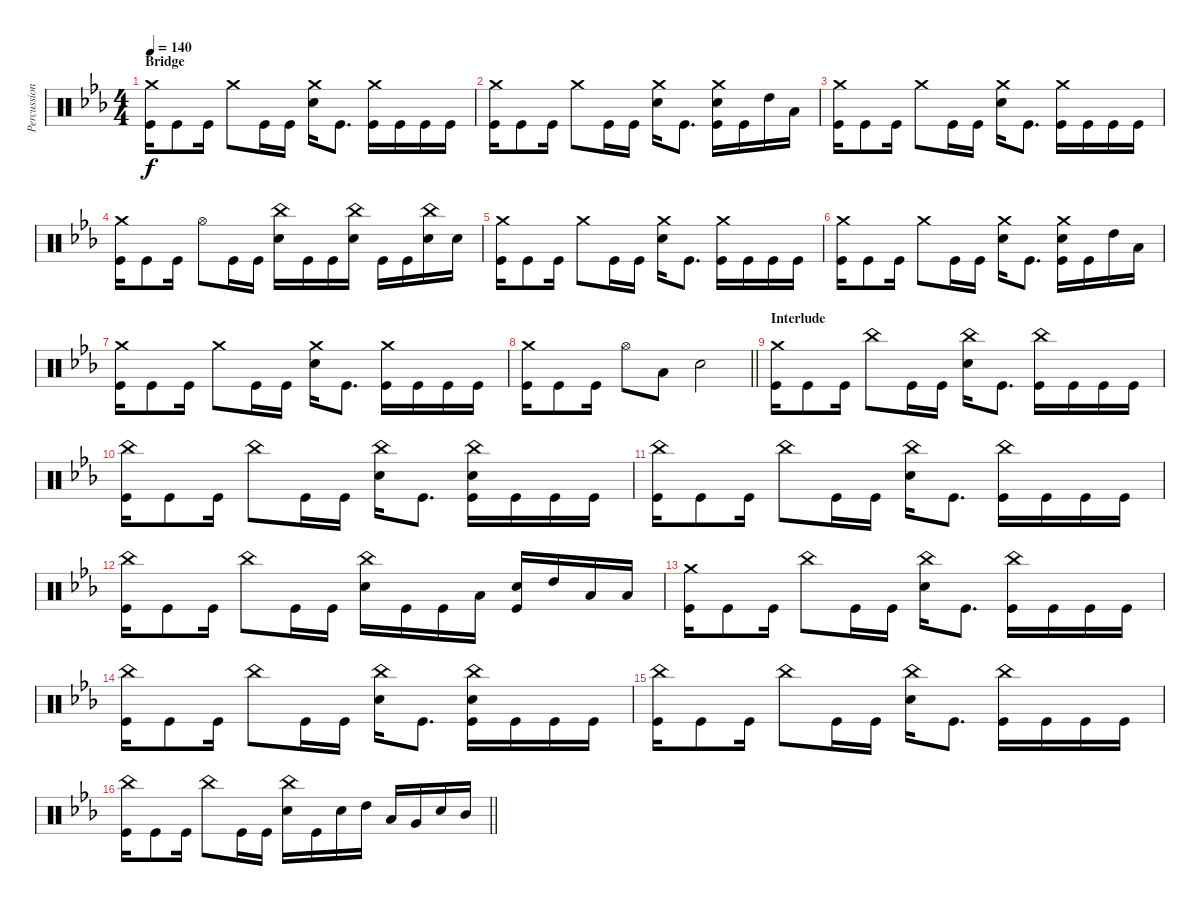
\track ("Percussion" "Percussion") {instrument percussion}
\staff {score}
\articulation defaults
\ts (4 4)
\section ("" "Bridge")
\tempo 140
\clef neutral
\ks eb
("Crash medium (hit)" "Kick (hit)").16{dy f} "Kick (hit)".8 "Kick (hit)".16 "Crash medium (hit)".8 "Kick (hit)".16 "Kick (hit)".16 ("Crash medium (hit)" "Electric Snare (hit)").16 "Kick (hit)".8{d} ("Crash medium (hit)" "Kick (hit)").16 "Kick (hit)".16 "Kick (hit)".16 "Kick (hit)".16 |
("Crash medium (hit)" "Kick (hit)").16 "Kick (hit)".8 "Kick (hit)".16 "Crash medium (hit)".8 "Kick (hit)".16 "Kick (hit)".16 ("Crash medium (hit)" "Electric Snare (hit)").16 "Kick (hit)".8{d} ("Crash medium (hit)" "Electric Snare (hit)" "Kick (hit)").16 "Kick (hit)".16 "High Tom (hit)".16 "Low Tom (hit)".16 |
("Crash medium (hit)" "Kick (hit)").16 "Kick (hit)".8 "Kick (hit)".16 "Crash medium (hit)".8 "Kick (hit)".16 "Kick (hit)".16 ("Crash medium (hit)" "Electric Snare (hit)").16 "Kick (hit)".8{d} ("Crash medium (hit)" "Kick (hit)").16 "Kick (hit)".16 "Kick (hit)".16 "Kick (hit)".16 |
("Crash medium (hit)" "Kick (hit)").16 "Kick (hit)".8 "Kick (hit)".16 "Hi-Hat (open)".8 "Kick (hit)".16 "Kick (hit)".16 ("China (hit)" "Electric Snare (hit)").16 "Kick (hit)".16 "Kick (hit)".16 ("China (hit)" "Electric Snare (hit)").16 "Kick (hit)".16 "Kick (hit)".16 ("China (hit)" "Electric Snare (hit)").16 "Electric Snare (hit)".16 |
("Crash medium (hit)" "Kick (hit)").16 "Kick (hit)".8 "Kick (hit)".16 "Crash medium (hit)".8 "Kick (hit)".16 "Kick (hit)".16 ("Crash medium (hit)" "Electric Snare (hit)").16 "Kick (hit)".8{d} ("Crash medium (hit)" "Kick (hit)").16 "Kick (hit)".16 "Kick (hit)".16 "Kick (hit)".16 |
("Crash medium (hit)" "Kick (hit)").16 "Kick (hit)".8 "Kick (hit)".16 "Crash medium (hit)".8 "Kick (hit)".16 "Kick (hit)".16 ("Crash medium (hit)" "Electric Snare (hit)").16 "Kick (hit)".8{d} ("Crash medium (hit)" "Electric Snare (hit)" "Kick (hit)").16 "Kick (hit)".16 "High Tom (hit)".16 "Low Tom (hit)".16 |
("Crash medium (hit)" "Kick (hit)").16 "Kick (hit)".8 "Kick (hit)".16 "Crash medium (hit)".8 "Kick (hit)".16 "Kick (hit)".16 ("Crash medium (hit)" "Electric Snare (hit)").16 "Kick (hit)".8{d} ("Crash medium (hit)" "Kick (hit)").16 "Kick (hit)".16 "Kick (hit)".16 "Kick (hit)".16 |
\barLineRight lightlight
("Crash medium (hit)" "Kick (hit)").16 "Kick (hit)".8 "Kick (hit)".16 "Hi-Hat (open)".8 "Low Floor Tom (hit)".8 "Electric Snare (hit)".2 |
\section ("" "Interlude")
("Crash medium (hit)" "Kick (hit)").16 "Kick (hit)".8 "Kick (hit)".16 "China (hit)".8 "Kick (hit)".16 "Kick (hit)".16 ("China (hit)" "Electric Snare (hit)").16 "Kick (hit)".8{d} ("China (hit)" "Kick (hit)").16 "Kick (hit)".16 "Kick (hit)".16 "Kick (hit)".16 |
("China (hit)" "Kick (hit)").16 "Kick (hit)".8 "Kick (hit)".16 "China (hit)".8 "Kick (hit)".16 "Kick (hit)".16 ("China (hit)" "Electric Snare (hit)").16 "Kick (hit)".8{d} ("China (hit)" "Electric Snare (hit)" "Kick (hit)").16 "Kick (hit)".16 "Kick (hit)".16 "Kick (hit)".16 |
("China (hit)" "Kick (hit)").16 "Kick (hit)".8 "Kick (hit)".16 "China (hit)".8 "Kick (hit)".16 "Kick (hit)".16 ("China (hit)" "Electric Snare (hit)").16 "Kick (hit)".8{d} ("China (hit)" "Kick (hit)").16 "Kick (hit)".16 "Kick (hit)".16 "Kick (hit)".16 |
("China (hit)" "Kick (hit)").16 "Kick (hit)".8 "Kick (hit)".16 "China (hit)".8 "Kick (hit)".16 "Kick (hit)".16 ("China (hit)" "Electric Snare (hit)").16 "Kick (hit)".16 "Kick (hit)".16 "Low Floor Tom (hit)".16 ("Electric Snare (hit)" "Kick (hit)").16 "High Tom (hit)".16 "Low Tom (hit)".16 "Low Floor Tom (hit)".16 |
("Crash medium (hit)" "Kick (hit)").16 "Kick (hit)".8 "Kick (hit)".16 "China (hit)".8 "Kick (hit)".16 "Kick (hit)".16 ("China (hit)" "Electric Snare (hit)").16 "Kick (hit)".8{d} ("China (hit)" "Kick (hit)").16 "Kick (hit)".16 "Kick (hit)".16 "Kick (hit)".16 |
("China (hit)" "Kick (hit)").16 "Kick (hit)".8 "Kick (hit)".16 "China (hit)".8 "Kick (hit)".16 "Kick (hit)".16 ("China (hit)" "Electric Snare (hit)").16 "Kick (hit)".8{d} ("China (hit)" "Electric Snare (hit)" "Kick (hit)").16 "Kick (hit)".16 "Kick (hit)".16 "Kick (hit)".16 |
("China (hit)" "Kick (hit)").16 "Kick (hit)".8 "Kick (hit)".16 "China (hit)".8 "Kick (hit)".16 "Kick (hit)".16 ("China (hit)" "Electric Snare (hit)").16 "Kick (hit)".8{d} ("China (hit)" "Kick (hit)").16 "Kick (hit)".16 "Kick (hit)".16 "Kick (hit)".16 |
\barLineRight lightlight
("China (hit)" "Kick (hit)").16 "Kick (hit)".8 "Kick (hit)".16 "China (hit)".8 "Kick (hit)".16 "Kick (hit)".16 ("China (hit)" "Electric Snare (hit)").16 "Kick (hit)".16 "Electric Snare (hit)".16 "High Tom (hit)".16 "Low Tom (hit)".16 "Very Low Tom (hit)".16 "Electric Snare (hit)".16 "Mid Tom (hit)".16
